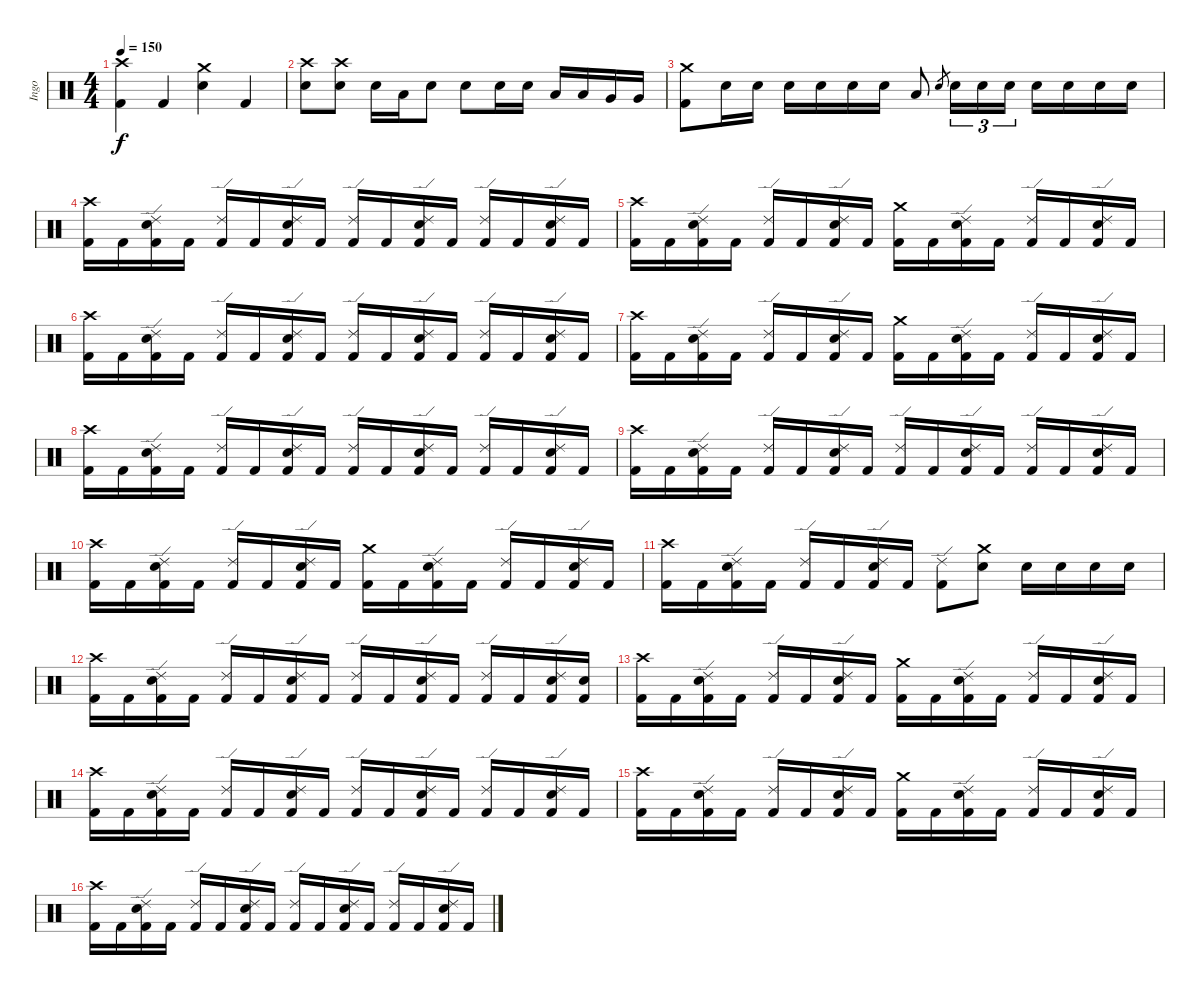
\track ("Ingo" "Ingo") {instrument percussion}
\staff {score}
\articulation defaults
\ts (4 4)
\tempo 150
\clef neutral
\ks c
("Crash high (hit)" "Kick (hit) 2").4{dy f} "Kick (hit) 2".4 ("Crash medium (hit)" "Electric Snare (hit)").4 "Kick (hit) 2".4 |
("Crash high (hit)" "Electric Snare (hit)").8 ("Crash high (hit)" "Electric Snare (hit)").8 "Electric Snare (hit)".16 "Low Tom (hit)".16 "Electric Snare (hit)".8 "Electric Snare (hit)".8 "Electric Snare (hit)".16 "Electric Snare (hit)".16 "Low Tom (hit)".16 "Low Tom (hit)".16 "Very Low Tom (hit)".16 "Very Low Tom (hit)".16 |
("Crash medium (hit)" "Kick (hit) 2").8 "Electric Snare (hit)".16 "Electric Snare (hit)".16 "Electric Snare (hit)".16 "Electric Snare (hit)".16 "Electric Snare (hit)".16 "Electric Snare (hit)".16 "Low Tom (hit)".8 "Electric Snare (hit)".8{gr} "Electric Snare (hit)".16{tu (3 2)} "Electric Snare (hit)".16{tu (3 2)} "Electric Snare (hit)".16{tu (3 2)} "Electric Snare (hit)".16 "Electric Snare (hit)".16 "Electric Snare (hit)".16 "Electric Snare (hit)".16 |
("Crash high (hit)" "Kick (hit) 2").16 "Kick (hit) 2".16 ("Ride (edge) 2" "Electric Snare (hit)" "Kick (hit) 2").16 "Kick (hit) 2".16 ("Ride (edge) 2" "Kick (hit) 2").16 "Kick (hit) 2".16 ("Ride (edge) 2" "Electric Snare (hit)" "Kick (hit) 2").16 "Kick (hit) 2".16 ("Ride (edge) 2" "Kick (hit) 2").16 "Kick (hit) 2".16 ("Ride (edge) 2" "Electric Snare (hit)" "Kick (hit) 2").16 "Kick (hit) 2".16 ("Ride (edge) 2" "Kick (hit) 2").16 "Kick (hit) 2".16 ("Ride (edge) 2" "Electric Snare (hit)" "Kick (hit) 2").16 "Kick (hit) 2".16 |
("Crash high (hit)" "Kick (hit) 2").16 "Kick (hit) 2".16 ("Ride (edge) 2" "Electric Snare (hit)" "Kick (hit) 2").16 "Kick (hit) 2".16 ("Ride (edge) 2" "Kick (hit) 2").16 "Kick (hit) 2".16 ("Ride (edge) 2" "Electric Snare (hit)" "Kick (hit) 2").16 "Kick (hit) 2".16 ("Crash medium (hit)" "Kick (hit) 2").16 "Kick (hit) 2".16 ("Ride (edge) 2" "Electric Snare (hit)" "Kick (hit) 2").16 "Kick (hit) 2".16 ("Ride (edge) 2" "Kick (hit) 2").16 "Kick (hit) 2".16 ("Ride (edge) 2" "Electric Snare (hit)" "Kick (hit) 2").16 "Kick (hit) 2".16 |
("Crash high (hit)" "Kick (hit) 2").16 "Kick (hit) 2".16 ("Ride (edge) 2" "Electric Snare (hit)" "Kick (hit) 2").16 "Kick (hit) 2".16 ("Ride (edge) 2" "Kick (hit) 2").16 "Kick (hit) 2".16 ("Ride (edge) 2" "Electric Snare (hit)" "Kick (hit) 2").16 "Kick (hit) 2".16 ("Ride (edge) 2" "Kick (hit) 2").16 "Kick (hit) 2".16 ("Ride (edge) 2" "Electric Snare (hit)" "Kick (hit) 2").16 "Kick (hit) 2".16 ("Ride (edge) 2" "Kick (hit) 2").16 "Kick (hit) 2".16 ("Ride (edge) 2" "Electric Snare (hit)" "Kick (hit) 2").16 "Kick (hit) 2".16 |
("Crash high (hit)" "Kick (hit) 2").16 "Kick (hit) 2".16 ("Ride (edge) 2" "Electric Snare (hit)" "Kick (hit) 2").16 "Kick (hit) 2".16 ("Ride (edge) 2" "Kick (hit) 2").16 "Kick (hit) 2".16 ("Ride (edge) 2" "Electric Snare (hit)" "Kick (hit) 2").16 "Kick (hit) 2".16 ("Crash medium (hit)" "Kick (hit) 2").16 "Kick (hit) 2".16 ("Ride (edge) 2" "Electric Snare (hit)" "Kick (hit) 2").16 "Kick (hit) 2".16 ("Ride (edge) 2" "Kick (hit) 2").16 "Kick (hit) 2".16 ("Ride (edge) 2" "Electric Snare (hit)" "Kick (hit) 2").16 "Kick (hit) 2".16 |
("Crash high (hit)" "Kick (hit) 2").16 "Kick (hit) 2".16 ("Ride (edge) 2" "Electric Snare (hit)" "Kick (hit) 2").16 "Kick (hit) 2".16 ("Ride (edge) 2" "Kick (hit) 2").16 "Kick (hit) 2".16 ("Ride (edge) 2" "Electric Snare (hit)" "Kick (hit) 2").16 "Kick (hit) 2".16 ("Ride (edge) 2" "Kick (hit) 2").16 "Kick (hit) 2".16 ("Ride (edge) 2" "Electric Snare (hit)" "Kick (hit) 2").16 "Kick (hit) 2".16 ("Ride (edge) 2" "Kick (hit) 2").16 "Kick (hit) 2".16 ("Ride (edge) 2" "Electric Snare (hit)" "Kick (hit) 2").16 "Kick (hit) 2".16 |
("Crash high (hit)" "Kick (hit) 2").16 "Kick (hit) 2".16 ("Ride (edge) 2" "Electric Snare (hit)" "Kick (hit) 2").16 "Kick (hit) 2".16 ("Ride (edge) 2" "Kick (hit) 2").16 "Kick (hit) 2".16 ("Ride (edge) 2" "Electric Snare (hit)" "Kick (hit) 2").16 "Kick (hit) 2".16 ("Ride (edge) 2" "Kick (hit) 2").16 "Kick (hit) 2".16 ("Ride (edge) 2" "Electric Snare (hit)" "Kick (hit) 2").16 "Kick (hit) 2".16 ("Ride (edge) 2" "Kick (hit) 2").16 "Kick (hit) 2".16 ("Ride (edge) 2" "Electric Snare (hit)" "Kick (hit) 2").16 "Kick (hit) 2".16 |
("Crash high (hit)" "Kick (hit) 2").16 "Kick (hit) 2".16 ("Ride (edge) 2" "Electric Snare (hit)" "Kick (hit) 2").16 "Kick (hit) 2".16 ("Ride (edge) 2" "Kick (hit) 2").16 "Kick (hit) 2".16 ("Ride (edge) 2" "Electric Snare (hit)" "Kick (hit) 2").16 "Kick (hit) 2".16 ("Crash medium (hit)" "Kick (hit) 2").16 "Kick (hit) 2".16 ("Ride (edge) 2" "Electric Snare (hit)" "Kick (hit) 2").16 "Kick (hit) 2".16 ("Ride (edge) 2" "Kick (hit) 2").16 "Kick (hit) 2".16 ("Ride (edge) 2" "Electric Snare (hit)" "Kick (hit) 2").16 "Kick (hit) 2".16 |
("Crash high (hit)" "Kick (hit) 2").16 "Kick (hit) 2".16 ("Ride (edge) 2" "Electric Snare (hit)" "Kick (hit) 2").16 "Kick (hit) 2".16 ("Ride (edge) 2" "Kick (hit) 2").16 "Kick (hit) 2".16 ("Ride (edge) 2" "Electric Snare (hit)" "Kick (hit) 2").16 "Kick (hit) 2".16 ("Ride (edge) 2" "Kick (hit) 2").8 ("Crash medium (hit)" "Electric Snare (hit)").8 "Electric Snare (hit)".16 "Electric Snare (hit)".16 "Electric Snare (hit)".16 "Electric Snare (hit)".16 |
("Crash high (hit)" "Kick (hit) 2").16 "Kick (hit) 2".16 ("Ride (edge) 2" "Electric Snare (hit)" "Kick (hit) 2").16 "Kick (hit) 2".16 ("Ride (edge) 2" "Kick (hit) 2").16 "Kick (hit) 2".16 ("Ride (edge) 2" "Electric Snare (hit)" "Kick (hit) 2").16 "Kick (hit) 2".16 ("Ride (edge) 2" "Kick (hit) 2").16 "Kick (hit) 2".16 ("Ride (edge) 2" "Electric Snare (hit)" "Kick (hit) 2").16 "Kick (hit) 2".16 ("Ride (edge) 2" "Kick (hit) 2").16 "Kick (hit) 2".16 ("Ride (edge) 2" "Electric Snare (hit)" "Kick (hit) 2").16 ("Electric Snare (hit)" "Kick (hit) 2").16 |
("Crash high (hit)" "Kick (hit) 2").16 "Kick (hit) 2".16 ("Ride (edge) 2" "Electric Snare (hit)" "Kick (hit) 2").16 "Kick (hit) 2".16 ("Ride (edge) 2" "Kick (hit) 2").16 "Kick (hit) 2".16 ("Ride (edge) 2" "Electric Snare (hit)" "Kick (hit) 2").16 "Kick (hit) 2".16 ("Crash medium (hit)" "Kick (hit) 2").16 "Kick (hit) 2".16 ("Ride (edge) 2" "Electric Snare (hit)" "Kick (hit) 2").16 "Kick (hit) 2".16 ("Ride (edge) 2" "Kick (hit) 2").16 "Kick (hit) 2".16 ("Ride (edge) 2" "Electric Snare (hit)" "Kick (hit) 2").16 "Kick (hit) 2".16 |
("Crash high (hit)" "Kick (hit) 2").16 "Kick (hit) 2".16 ("Ride (edge) 2" "Electric Snare (hit)" "Kick (hit) 2").16 "Kick (hit) 2".16 ("Ride (edge) 2" "Kick (hit) 2").16 "Kick (hit) 2".16 ("Ride (edge) 2" "Electric Snare (hit)" "Kick (hit) 2").16 "Kick (hit) 2".16 ("Ride (edge) 2" "Kick (hit) 2").16 "Kick (hit) 2".16 ("Ride (edge) 2" "Electric Snare (hit)" "Kick (hit) 2").16 "Kick (hit) 2".16 ("Ride (edge) 2" "Kick (hit) 2").16 "Kick (hit) 2".16 ("Ride (edge) 2" "Electric Snare (hit)" "Kick (hit) 2").16 "Kick (hit) 2".16 |
("Crash high (hit)" "Kick (hit) 2").16 "Kick (hit) 2".16 ("Ride (edge) 2" "Electric Snare (hit)" "Kick (hit) 2").16 "Kick (hit) 2".16 ("Ride (edge) 2" "Kick (hit) 2").16 "Kick (hit) 2".16 ("Ride (edge) 2" "Electric Snare (hit)" "Kick (hit) 2").16 "Kick (hit) 2".16 ("Crash medium (hit)" "Kick (hit) 2").16 "Kick (hit) 2".16 ("Ride (edge) 2" "Electric Snare (hit)" "Kick (hit) 2").16 "Kick (hit) 2".16 ("Ride (edge) 2" "Kick (hit) 2").16 "Kick (hit) 2".16 ("Ride (edge) 2" "Electric Snare (hit)" "Kick (hit) 2").16 "Kick (hit) 2".16 |
("Crash high (hit)" "Kick (hit) 2").16 "Kick (hit) 2".16 ("Ride (edge) 2" "Electric Snare (hit)" "Kick (hit) 2").16 "Kick (hit) 2".16 ("Ride (edge) 2" "Kick (hit) 2").16 "Kick (hit) 2".16 ("Ride (edge) 2" "Electric Snare (hit)" "Kick (hit) 2").16 "Kick (hit) 2".16 ("Ride (edge) 2" "Kick (hit) 2").16 "Kick (hit) 2".16 ("Ride (edge) 2" "Electric Snare (hit)" "Kick (hit) 2").16 "Kick (hit) 2".16 ("Ride (edge) 2" "Kick (hit) 2").16 "Kick (hit) 2".16 ("Ride (edge) 2" "Electric Snare (hit)" "Kick (hit) 2").16 "Kick (hit) 2".16
